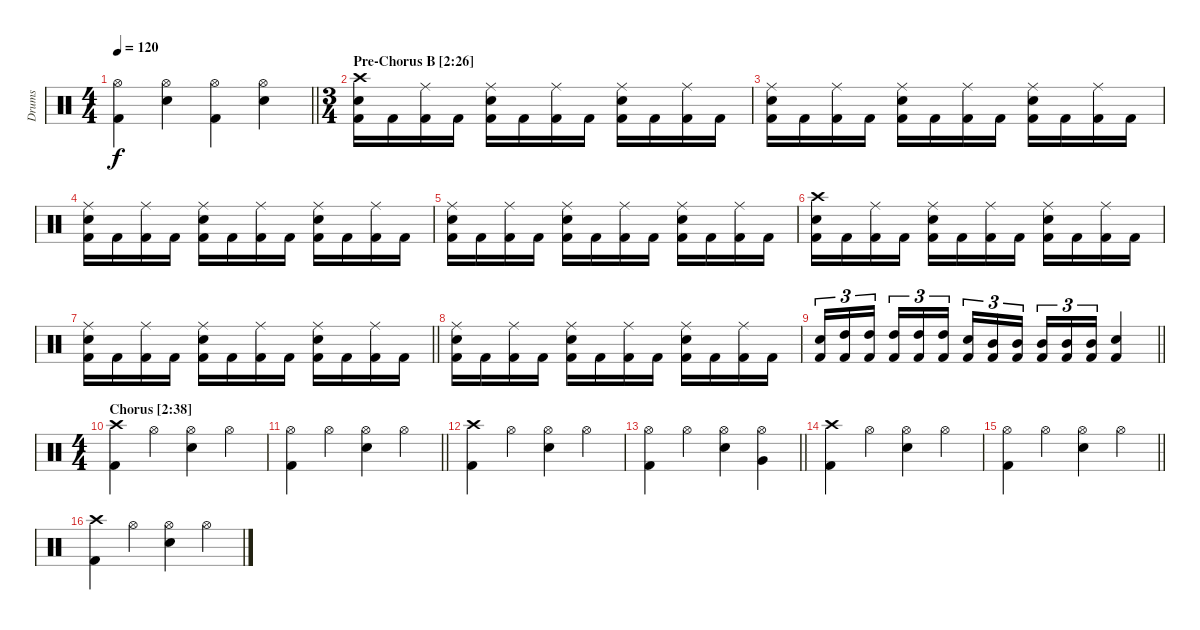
\track ("Drums" "Drums") {instrument percussion}
\staff {score}
\articulation defaults
\ts (4 4)
\tempo 120
\clef neutral
\barLineRight lightlight
\ks c
("Hi-Hat (open)" "Kick (hit) 2").4{dy f} ("Hi-Hat (open)" "Snare (hit) 2").4 ("Hi-Hat (open)" "Kick (hit) 2").4 ("Hi-Hat (open)" "Snare (hit) 2").4 |
\ts (3 4)
\section ("" "Pre-Chorus B [2:26]")
("Crash high (hit)" "Snare (hit) 2" "Kick (hit) 2").16 "Kick (hit) 2".16 ("Ride (middle)" "Kick (hit) 2").16 "Kick (hit) 2".16 ("Ride (middle)" "Snare (hit) 2" "Kick (hit) 2").16 "Kick (hit) 2".16 ("Ride (middle)" "Kick (hit) 2").16 "Kick (hit) 2".16 ("Ride (middle)" "Snare (hit) 2" "Kick (hit) 2").16 "Kick (hit) 2".16 ("Ride (middle)" "Kick (hit) 2").16 "Kick (hit) 2".16 |
("Ride (middle)" "Snare (hit) 2" "Kick (hit) 2").16 "Kick (hit) 2".16 ("Ride (middle)" "Kick (hit) 2").16 "Kick (hit) 2".16 ("Ride (middle)" "Snare (hit) 2" "Kick (hit) 2").16 "Kick (hit) 2".16 ("Ride (middle)" "Kick (hit) 2").16 "Kick (hit) 2".16 ("Ride (middle)" "Snare (hit) 2" "Kick (hit) 2").16 "Kick (hit) 2".16 ("Ride (middle)" "Kick (hit) 2").16 "Kick (hit) 2".16 |
("Ride (middle)" "Snare (hit) 2" "Kick (hit) 2").16 "Kick (hit) 2".16 ("Ride (middle)" "Kick (hit) 2").16 "Kick (hit) 2".16 ("Ride (middle)" "Snare (hit) 2" "Kick (hit) 2").16 "Kick (hit) 2".16 ("Ride (middle)" "Kick (hit) 2").16 "Kick (hit) 2".16 ("Ride (middle)" "Snare (hit) 2" "Kick (hit) 2").16 "Kick (hit) 2".16 ("Ride (middle)" "Kick (hit) 2").16 "Kick (hit) 2".16 |
("Ride (middle)" "Snare (hit) 2" "Kick (hit) 2").16 "Kick (hit) 2".16 ("Ride (middle)" "Kick (hit) 2").16 "Kick (hit) 2".16 ("Ride (middle)" "Snare (hit) 2" "Kick (hit) 2").16 "Kick (hit) 2".16 ("Ride (middle)" "Kick (hit) 2").16 "Kick (hit) 2".16 ("Ride (middle)" "Snare (hit) 2" "Kick (hit) 2").16 "Kick (hit) 2".16 ("Ride (middle)" "Kick (hit) 2").16 "Kick (hit) 2".16 |
("Crash high (hit)" "Snare (hit) 2" "Kick (hit) 2").16 "Kick (hit) 2".16 ("Ride (middle)" "Kick (hit) 2").16 "Kick (hit) 2".16 ("Ride (middle)" "Snare (hit) 2" "Kick (hit) 2").16 "Kick (hit) 2".16 ("Ride (middle)" "Kick (hit) 2").16 "Kick (hit) 2".16 ("Ride (middle)" "Snare (hit) 2" "Kick (hit) 2").16 "Kick (hit) 2".16 ("Ride (middle)" "Kick (hit) 2").16 "Kick (hit) 2".16 |
\barLineRight lightlight
("Ride (middle)" "Snare (hit) 2" "Kick (hit) 2").16 "Kick (hit) 2".16 ("Ride (middle)" "Kick (hit) 2").16 "Kick (hit) 2".16 ("Ride (middle)" "Snare (hit) 2" "Kick (hit) 2").16 "Kick (hit) 2".16 ("Ride (middle)" "Kick (hit) 2").16 "Kick (hit) 2".16 ("Ride (middle)" "Snare (hit) 2" "Kick (hit) 2").16 "Kick (hit) 2".16 ("Ride (middle)" "Kick (hit) 2").16 "Kick (hit) 2".16 |
("Ride (middle)" "Snare (hit) 2" "Kick (hit) 2").16 "Kick (hit) 2".16 ("Ride (middle)" "Kick (hit) 2").16 "Kick (hit) 2".16 ("Ride (middle)" "Snare (hit) 2" "Kick (hit) 2").16 "Kick (hit) 2".16 ("Ride (middle)" "Kick (hit) 2").16 "Kick (hit) 2".16 ("Ride (middle)" "Snare (hit) 2" "Kick (hit) 2").16 "Kick (hit) 2".16 ("Ride (middle)" "Kick (hit) 2").16 "Kick (hit) 2".16 |
\barLineRight lightlight
("Snare (hit) 2" "Kick (hit) 2").16{tu (3 2)} ("High Tom (hit)" "Kick (hit) 2").16{tu (3 2)} ("High Tom (hit)" "Kick (hit) 2").16{tu (3 2) beam splitsecondary} ("High Tom (hit)" "Kick (hit) 2").16{tu (3 2)} ("High Tom (hit)" "Kick (hit) 2").16{tu (3 2)} ("High Tom (hit)" "Kick (hit) 2").16{tu (3 2)} ("Snare (hit) 2" "Kick (hit) 2").16{tu (3 2)} ("Mid Tom (hit)" "Kick (hit) 2").16{tu (3 2)} ("Mid Tom (hit)" "Kick (hit) 2").16{tu (3 2) beam splitsecondary} ("Mid Tom (hit)" "Kick (hit) 2").16{tu (3 2)} ("Mid Tom (hit)" "Kick (hit) 2").16{tu (3 2)} ("Mid Tom (hit)" "Kick (hit) 2").16{tu (3 2)} ("Snare (hit) 2" "Kick (hit) 2").4 |
\ts (4 4)
\section ("" "Chorus [2:38]")
("Crash high (hit)" "Kick (hit) 2").4 "Hi-Hat (open)".4 ("Hi-Hat (open)" "Snare (hit) 2").4 "Hi-Hat (open)".4 |
\barLineRight lightlight
("Hi-Hat (open)" "Kick (hit) 2").4 "Hi-Hat (open)".4 ("Hi-Hat (open)" "Snare (hit) 2").4 "Hi-Hat (open)".4 |
("Crash high (hit)" "Kick (hit) 2").4 "Hi-Hat (open)".4 ("Hi-Hat (open)" "Snare (hit) 2").4 "Hi-Hat (open)".4 |
\barLineRight lightlight
("Hi-Hat (open)" "Kick (hit) 2").4 "Hi-Hat (open)".4 ("Hi-Hat (open)" "Snare (hit) 2").4 ("Hi-Hat (open)" "Very Low Tom (hit)").4 |
("Crash high (hit)" "Kick (hit) 2").4 "Hi-Hat (open)".4 ("Hi-Hat (open)" "Snare (hit) 2").4 "Hi-Hat (open)".4 |
\barLineRight lightlight
("Hi-Hat (open)" "Kick (hit) 2").4 "Hi-Hat (open)".4 ("Hi-Hat (open)" "Snare (hit) 2").4 "Hi-Hat (open)".4 |
("Crash high (hit)" "Kick (hit) 2").4 "Hi-Hat (open)".4 ("Hi-Hat (open)" "Snare (hit) 2").4 "Hi-Hat (open)".4
